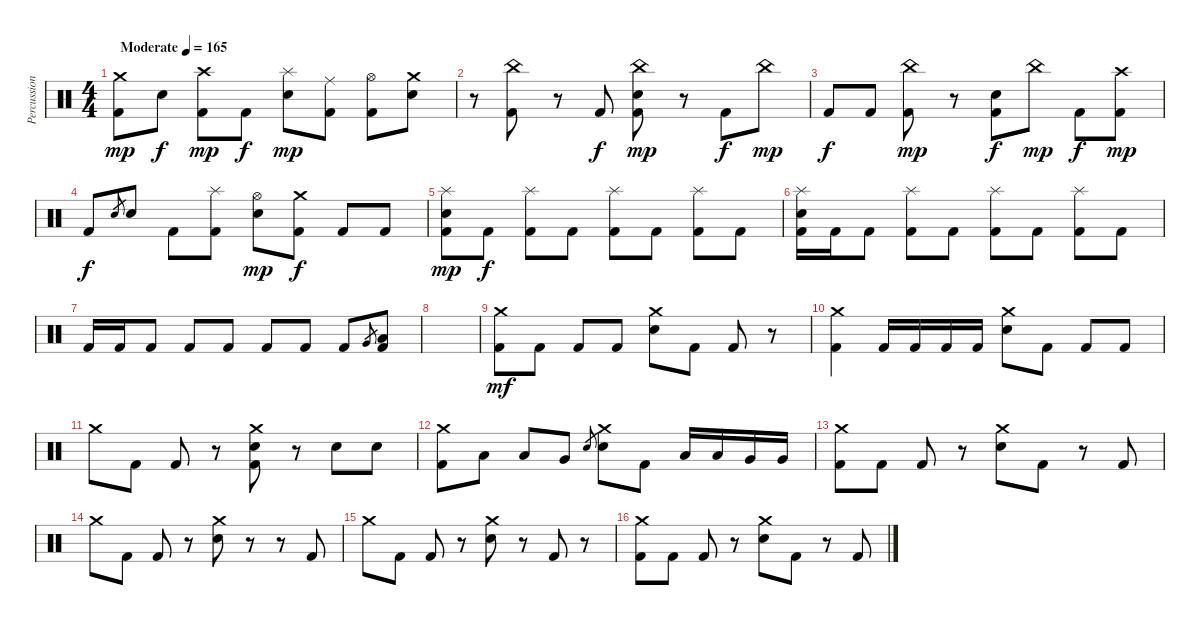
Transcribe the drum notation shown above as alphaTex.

\track ("Percussion" "Percussion") {instrument percussion}
\staff {score}
\articulation defaults
\ts (4 4)
\tempo (165 "Moderate")
\clef neutral
\ks c
("Crash medium (hit)" "Kick (hit) 2").8{dy mp} "Electric Snare (hit)".8{dy f} ("Crash high (hit)" "Kick (hit) 2").8{dy mp} "Kick (hit) 2".8{dy f} ("Splash (hit)" "Electric Snare (hit)").8{dy mp} ("Ride (middle)" "Kick (hit) 2").8 ("Hi-Hat (open)" "Kick (hit) 2").8 ("Crash medium (hit)" "Electric Snare (hit)").8 |
r.8 ("China (hit)" "Kick (hit) 2").8 r.8 "Kick (hit) 2".8{dy f} ("China (hit)" "Electric Snare (hit)" "Kick (hit) 2").8{dy mp} r.8 "Kick (hit) 2".8{dy f} "China (hit)".8{dy mp} |
"Kick (hit) 2".8{dy f} "Kick (hit) 2".8 ("China (hit)" "Kick (hit) 2").8{dy mp} r.8 ("Electric Snare (hit)" "Kick (hit) 2").8{dy f} "China (hit)".8{dy mp} "Kick (hit) 2".8{dy f} ("Crash high (hit)" "Kick (hit) 2").8{dy mp} |
"Kick (hit) 2".8{dy f} "Electric Snare (hit)".8{gr} "Electric Snare (hit)".8 "Kick (hit) 2".8 ("Splash (hit)" "Kick (hit) 2").8 ("Hi-Hat (open)" "Electric Snare (hit)").8{dy mp} ("Crash medium (hit)" "Kick (hit) 2").8{dy f} "Kick (hit) 2".8 "Kick (hit) 2".8 |
("Splash (hit)" "Electric Snare (hit)" "Kick (hit) 2").8{dy mp} "Kick (hit) 2".8{dy f} ("Splash (hit)" "Kick (hit) 2").8 "Kick (hit) 2".8 ("Splash (hit)" "Kick (hit) 2").8 "Kick (hit) 2".8 ("Splash (hit)" "Kick (hit) 2").8 "Kick (hit) 2".8 |
("Splash (hit)" "Electric Snare (hit)" "Kick (hit) 2").16 "Kick (hit) 2".16 "Kick (hit) 2".8 ("Splash (hit)" "Kick (hit) 2").8 "Kick (hit) 2".8 ("Splash (hit)" "Kick (hit) 2").8 "Kick (hit) 2".8 ("Splash (hit)" "Kick (hit) 2").8 "Kick (hit) 2".8 |
"Kick (hit) 2".16 "Kick (hit) 2".16 "Kick (hit) 2".8 "Kick (hit) 2".8 "Kick (hit) 2".8 "Kick (hit) 2".8 "Kick (hit) 2".8 "Kick (hit) 2".8 "Very Low Tom (hit)".8{gr} ("Low Floor Tom (hit)" "Kick (hit) 2").8 |
|
("Crash medium (hit)" "Kick (hit) 2").8{dy mf} "Kick (hit) 2".8 "Kick (hit) 2".8 "Kick (hit) 2".8 ("Crash medium (hit)" "Electric Snare (hit)").8 "Kick (hit) 2".8 "Kick (hit) 2".8 r.8 |
("Crash medium (hit)" "Kick (hit) 2").4 "Kick (hit) 2".16 "Kick (hit) 2".16 "Kick (hit) 2".16 "Kick (hit) 2".16 ("Crash medium (hit)" "Electric Snare (hit)").8 "Kick (hit) 2".8 "Kick (hit) 2".8 "Kick (hit) 2".8 |
"Crash medium (hit)".8 "Kick (hit) 2".8 "Kick (hit) 2".8 r.8 ("Crash medium (hit)" "Electric Snare (hit)" "Kick (hit) 2").8 r.8 "Electric Snare (hit)".8 "Electric Snare (hit)".8 |
("Crash medium (hit)" "Kick (hit) 2").8 "Low Tom (hit)".8 "Low Tom (hit)".8 "Very Low Tom (hit)".8 "Electric Snare (hit)".8{gr} ("Crash medium (hit)" "Electric Snare (hit)").8 "Kick (hit) 2".8 "Low Tom (hit)".16 "Low Tom (hit)".16 "Very Low Tom (hit)".16 "Very Low Tom (hit)".16 |
("Crash medium (hit)" "Kick (hit) 2").8 "Kick (hit) 2".8 "Kick (hit) 2".8 r.8 ("Crash medium (hit)" "Electric Snare (hit)").8 "Kick (hit) 2".8 r.8 "Kick (hit) 2".8 |
"Crash medium (hit)".8 "Kick (hit) 2".8 "Kick (hit) 2".8 r.8 ("Crash medium (hit)" "Electric Snare (hit)").8 r.8 r.8 "Kick (hit) 2".8 |
"Crash medium (hit)".8 "Kick (hit) 2".8 "Kick (hit) 2".8 r.8 ("Crash medium (hit)" "Electric Snare (hit)").8 r.8 "Kick (hit) 2".8 r.8 |
("Crash medium (hit)" "Kick (hit) 2").8 "Kick (hit) 2".8 "Kick (hit) 2".8 r.8 ("Crash medium (hit)" "Electric Snare (hit)").8 "Kick (hit) 2".8 r.8 "Kick (hit) 2".8
